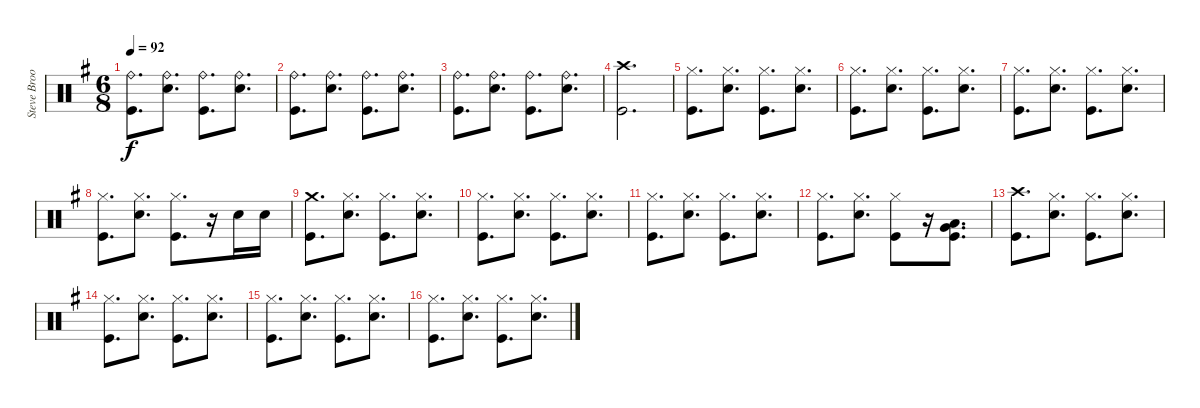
\track ("Steve Brookins Drums" "Steve Broo") {instrument percussion}
\staff {score}
\articulation defaults
\ts (6 8)
\tempo 92
\clef neutral
\ks g
("Ride (bell)" "Kick (hit)").8{d dy f} ("Ride (bell)" "Snare (hit) 2").8{d} ("Ride (bell)" "Kick (hit)").8{d} ("Ride (bell)" "Snare (hit) 2").8{d} |
("Ride (bell)" "Kick (hit)").8{d} ("Ride (bell)" "Snare (hit) 2").8{d} ("Ride (bell)" "Kick (hit)").8{d} ("Ride (bell)" "Snare (hit) 2").8{d} |
("Ride (bell)" "Kick (hit)").8{d} ("Ride (bell)" "Snare (hit) 2").8{d} ("Ride (bell)" "Kick (hit)").8{d} ("Ride (bell)" "Snare (hit) 2").8{d} |
("Crash high (hit)" "Kick (hit)").2{d} |
("Hi-Hat (closed)" "Kick (hit)").8{d} ("Hi-Hat (closed)" "Snare (hit) 2").8{d} ("Hi-Hat (closed)" "Kick (hit)").8{d} ("Hi-Hat (closed)" "Snare (hit) 2").8{d} |
("Hi-Hat (closed)" "Kick (hit)").8{d} ("Hi-Hat (closed)" "Snare (hit) 2").8{d} ("Hi-Hat (closed)" "Kick (hit)").8{d} ("Hi-Hat (closed)" "Snare (hit) 2").8{d} |
("Hi-Hat (closed)" "Kick (hit)").8{d} ("Hi-Hat (closed)" "Snare (hit) 2").8{d} ("Hi-Hat (closed)" "Kick (hit)").8{d} ("Hi-Hat (closed)" "Snare (hit) 2").8{d} |
("Hi-Hat (closed)" "Kick (hit)").8{d} ("Hi-Hat (closed)" "Snare (hit) 2").8{d} ("Hi-Hat (closed)" "Kick (hit)").8{d} r.16 "Snare (hit) 2".16 "Snare (hit) 2".16 |
("Crash medium (hit)" "Kick (hit)").8{d} ("Hi-Hat (closed)" "Snare (hit) 2").8{d} ("Hi-Hat (closed)" "Kick (hit)").8{d} ("Hi-Hat (closed)" "Snare (hit) 2").8{d} |
("Hi-Hat (closed)" "Kick (hit)").8{d} ("Hi-Hat (closed)" "Snare (hit) 2").8{d} ("Hi-Hat (closed)" "Kick (hit)").8{d} ("Hi-Hat (closed)" "Snare (hit) 2").8{d} |
("Hi-Hat (closed)" "Kick (hit)").8{d} ("Hi-Hat (closed)" "Snare (hit) 2").8{d} ("Hi-Hat (closed)" "Kick (hit)").8{d} ("Hi-Hat (closed)" "Snare (hit) 2").8{d} |
("Hi-Hat (closed)" "Kick (hit)").8{d} ("Hi-Hat (closed)" "Snare (hit) 2").8{d} ("Hi-Hat (closed)" "Kick (hit)").8 r.16 ("Very Low Tom (hit)" "Low Floor Tom (hit)" "Kick (hit)").8{d} |
("Crash high (hit)" "Kick (hit)").8{d} ("Hi-Hat (closed)" "Snare (hit) 2").8{d} ("Hi-Hat (closed)" "Kick (hit)").8{d} ("Hi-Hat (closed)" "Snare (hit) 2").8{d} |
("Hi-Hat (closed)" "Kick (hit)").8{d} ("Hi-Hat (closed)" "Snare (hit) 2").8{d} ("Hi-Hat (closed)" "Kick (hit)").8{d} ("Hi-Hat (closed)" "Snare (hit) 2").8{d} |
("Hi-Hat (closed)" "Kick (hit)").8{d} ("Hi-Hat (closed)" "Snare (hit) 2").8{d} ("Hi-Hat (closed)" "Kick (hit)").8{d} ("Hi-Hat (closed)" "Snare (hit) 2").8{d} |
("Hi-Hat (closed)" "Kick (hit)").8{d} ("Hi-Hat (closed)" "Snare (hit) 2").8{d} ("Hi-Hat (closed)" "Kick (hit)").8{d} ("Hi-Hat (closed)" "Snare (hit) 2").8{d}
